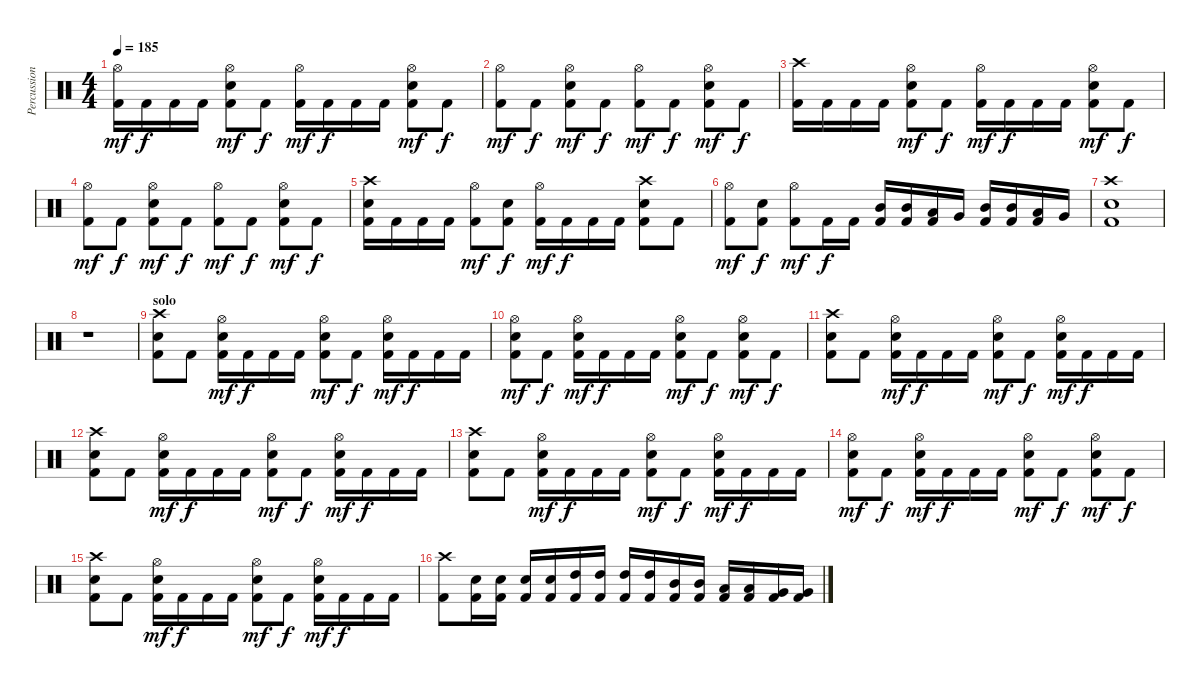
\track ("Percussion" "Percussion") {instrument percussion}
\staff {score}
\articulation defaults
\ts (4 4)
\tempo 185
\clef neutral
\ks c
("Hi-Hat (open)" "Kick (hit) 2").16{dy mf} "Kick (hit) 2".16{dy f} "Kick (hit) 2".16 "Kick (hit) 2".16 ("Hi-Hat (open)" "Electric Snare (hit)" "Kick (hit) 2").8{dy mf} "Kick (hit) 2".8{dy f} ("Hi-Hat (open)" "Kick (hit) 2").16{dy mf} "Kick (hit) 2".16{dy f} "Kick (hit) 2".16 "Kick (hit) 2".16 ("Hi-Hat (open)" "Electric Snare (hit)" "Kick (hit) 2").8{dy mf} "Kick (hit) 2".8{dy f} |
("Hi-Hat (open)" "Kick (hit) 2").8{dy mf} "Kick (hit) 2".8{dy f} ("Hi-Hat (open)" "Electric Snare (hit)" "Kick (hit) 2").8{dy mf} "Kick (hit) 2".8{dy f} ("Hi-Hat (open)" "Kick (hit) 2").8{dy mf} "Kick (hit) 2".8{dy f} ("Hi-Hat (open)" "Electric Snare (hit)" "Kick (hit) 2").8{dy mf} "Kick (hit) 2".8{dy f} |
("Crash high (hit)" "Kick (hit) 2").16 "Kick (hit) 2".16 "Kick (hit) 2".16 "Kick (hit) 2".16 ("Hi-Hat (open)" "Electric Snare (hit)" "Kick (hit) 2").8{dy mf} "Kick (hit) 2".8{dy f} ("Hi-Hat (open)" "Kick (hit) 2").16{dy mf} "Kick (hit) 2".16{dy f} "Kick (hit) 2".16 "Kick (hit) 2".16 ("Hi-Hat (open)" "Electric Snare (hit)" "Kick (hit) 2").8{dy mf} "Kick (hit) 2".8{dy f} |
("Hi-Hat (open)" "Kick (hit) 2").8{dy mf} "Kick (hit) 2".8{dy f} ("Hi-Hat (open)" "Electric Snare (hit)" "Kick (hit) 2").8{dy mf} "Kick (hit) 2".8{dy f} ("Hi-Hat (open)" "Kick (hit) 2").8{dy mf} "Kick (hit) 2".8{dy f} ("Hi-Hat (open)" "Electric Snare (hit)" "Kick (hit) 2").8{dy mf} "Kick (hit) 2".8{dy f} |
("Crash high (hit)" "Electric Snare (hit)" "Kick (hit) 2").16 "Kick (hit) 2".16 "Kick (hit) 2".16 "Kick (hit) 2".16 ("Hi-Hat (open)" "Kick (hit) 2").8{dy mf} ("Electric Snare (hit)" "Kick (hit) 2").8{dy f} ("Hi-Hat (open)" "Kick (hit) 2").16{dy mf} "Kick (hit) 2".16{dy f} "Kick (hit) 2".16 "Kick (hit) 2".16 ("Crash high (hit)" "Electric Snare (hit)" "Kick (hit) 2").8 "Kick (hit) 2".8 |
("Hi-Hat (open)" "Kick (hit) 2").8{dy mf} ("Electric Snare (hit)" "Kick (hit) 2").8{dy f} ("Hi-Hat (open)" "Kick (hit) 2").8{dy mf} "Kick (hit) 2".16{dy f} "Kick (hit) 2".16 ("Mid Tom (hit)" "Kick (hit) 2").16 ("Mid Tom (hit)" "Kick (hit) 2").16 ("Low Tom (hit)" "Kick (hit) 2").16 "Very Low Tom (hit)".16 ("Mid Tom (hit)" "Kick (hit) 2").16 ("Mid Tom (hit)" "Kick (hit) 2").16 ("Low Tom (hit)" "Kick (hit) 2").16 "Very Low Tom (hit)".16 |
("Crash high (hit)" "Electric Snare (hit)" "Kick (hit) 2").1 |
r.1 |
\section ("" "solo")
("Crash high (hit)" "Electric Snare (hit)" "Kick (hit) 2").8 "Kick (hit) 2".8 ("Hi-Hat (open)" "Electric Snare (hit)" "Kick (hit) 2").16{dy mf} "Kick (hit) 2".16{dy f} "Kick (hit) 2".16 "Kick (hit) 2".16 ("Hi-Hat (open)" "Electric Snare (hit)" "Kick (hit) 2").8{dy mf} "Kick (hit) 2".8{dy f} ("Hi-Hat (open)" "Electric Snare (hit)" "Kick (hit) 2").16{dy mf} "Kick (hit) 2".16{dy f} "Kick (hit) 2".16 "Kick (hit) 2".16 |
("Hi-Hat (open)" "Electric Snare (hit)" "Kick (hit) 2").8{dy mf} "Kick (hit) 2".8{dy f} ("Hi-Hat (open)" "Electric Snare (hit)" "Kick (hit) 2").16{dy mf} "Kick (hit) 2".16{dy f} "Kick (hit) 2".16 "Kick (hit) 2".16 ("Hi-Hat (open)" "Electric Snare (hit)" "Kick (hit) 2").8{dy mf} "Kick (hit) 2".8{dy f} ("Hi-Hat (open)" "Electric Snare (hit)" "Kick (hit) 2").8{dy mf} "Kick (hit) 2".8{dy f} |
("Crash high (hit)" "Electric Snare (hit)" "Kick (hit) 2").8 "Kick (hit) 2".8 ("Hi-Hat (open)" "Electric Snare (hit)" "Kick (hit) 2").16{dy mf} "Kick (hit) 2".16{dy f} "Kick (hit) 2".16 "Kick (hit) 2".16 ("Hi-Hat (open)" "Electric Snare (hit)" "Kick (hit) 2").8{dy mf} "Kick (hit) 2".8{dy f} ("Hi-Hat (open)" "Electric Snare (hit)" "Kick (hit) 2").16{dy mf} "Kick (hit) 2".16{dy f} "Kick (hit) 2".16 "Kick (hit) 2".16 |
("Crash high (hit)" "Electric Snare (hit)" "Kick (hit) 2").8 "Kick (hit) 2".8 ("Hi-Hat (open)" "Electric Snare (hit)" "Kick (hit) 2").16{dy mf} "Kick (hit) 2".16{dy f} "Kick (hit) 2".16 "Kick (hit) 2".16 ("Hi-Hat (open)" "Electric Snare (hit)" "Kick (hit) 2").8{dy mf} "Kick (hit) 2".8{dy f} ("Hi-Hat (open)" "Electric Snare (hit)" "Kick (hit) 2").16{dy mf} "Kick (hit) 2".16{dy f} "Kick (hit) 2".16 "Kick (hit) 2".16 |
("Crash high (hit)" "Electric Snare (hit)" "Kick (hit) 2").8 "Kick (hit) 2".8 ("Hi-Hat (open)" "Electric Snare (hit)" "Kick (hit) 2").16{dy mf} "Kick (hit) 2".16{dy f} "Kick (hit) 2".16 "Kick (hit) 2".16 ("Hi-Hat (open)" "Electric Snare (hit)" "Kick (hit) 2").8{dy mf} "Kick (hit) 2".8{dy f} ("Hi-Hat (open)" "Electric Snare (hit)" "Kick (hit) 2").16{dy mf} "Kick (hit) 2".16{dy f} "Kick (hit) 2".16 "Kick (hit) 2".16 |
("Hi-Hat (open)" "Electric Snare (hit)" "Kick (hit) 2").8{dy mf} "Kick (hit) 2".8{dy f} ("Hi-Hat (open)" "Electric Snare (hit)" "Kick (hit) 2").16{dy mf} "Kick (hit) 2".16{dy f} "Kick (hit) 2".16 "Kick (hit) 2".16 ("Hi-Hat (open)" "Electric Snare (hit)" "Kick (hit) 2").8{dy mf} "Kick (hit) 2".8{dy f} ("Hi-Hat (open)" "Electric Snare (hit)" "Kick (hit) 2").8{dy mf} "Kick (hit) 2".8{dy f} |
("Crash high (hit)" "Electric Snare (hit)" "Kick (hit) 2").8 "Kick (hit) 2".8 ("Hi-Hat (open)" "Electric Snare (hit)" "Kick (hit) 2").16{dy mf} "Kick (hit) 2".16{dy f} "Kick (hit) 2".16 "Kick (hit) 2".16 ("Hi-Hat (open)" "Electric Snare (hit)" "Kick (hit) 2").8{dy mf} "Kick (hit) 2".8{dy f} ("Hi-Hat (open)" "Electric Snare (hit)" "Kick (hit) 2").16{dy mf} "Kick (hit) 2".16{dy f} "Kick (hit) 2".16 "Kick (hit) 2".16 |
("Crash high (hit)" "Kick (hit) 2").8 ("Electric Snare (hit)" "Kick (hit) 2").16 ("Electric Snare (hit)" "Kick (hit) 2").16 ("Electric Snare (hit)" "Kick (hit) 2").16 ("Electric Snare (hit)" "Kick (hit) 2").16 ("High Tom (hit)" "Kick (hit) 2").16 ("High Tom (hit)" "Kick (hit) 2").16 ("High Tom (hit)" "Kick (hit) 2").16 ("High Tom (hit)" "Kick (hit) 2").16 ("Mid Tom (hit)" "Kick (hit) 2").16 ("Mid Tom (hit)" "Kick (hit) 2").16 ("Low Tom (hit)" "Kick (hit) 2").16 ("Low Tom (hit)" "Kick (hit) 2").16 ("Very Low Tom (hit)" "Kick (hit) 2").16 ("Very Low Tom (hit)" "Kick (hit) 2").16
